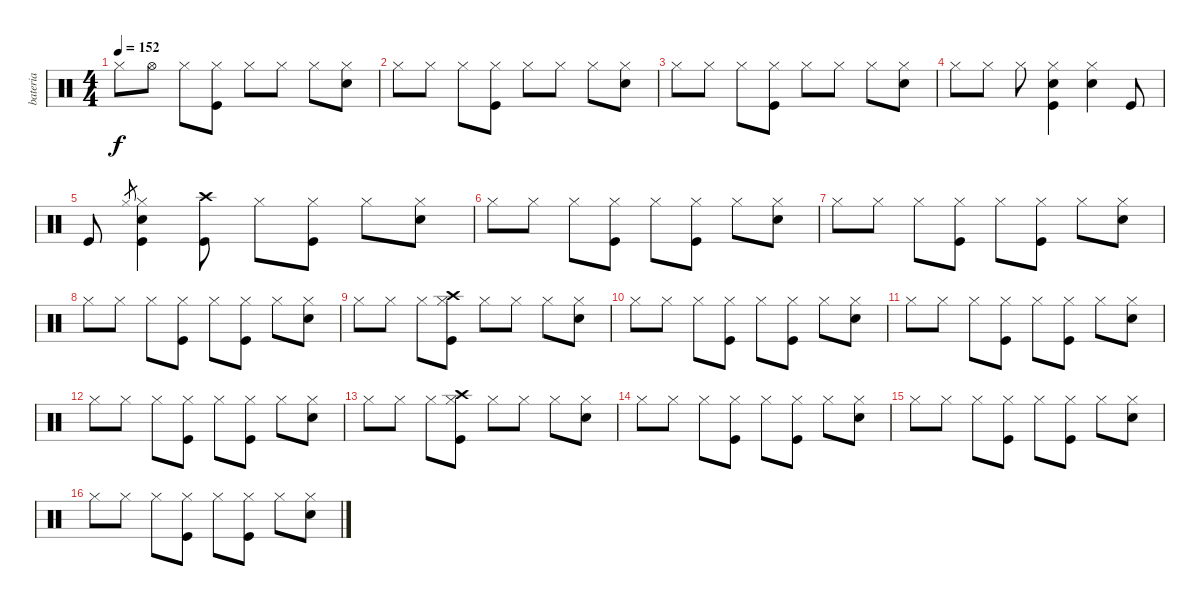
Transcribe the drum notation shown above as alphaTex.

\track ("bateria" "bateria") {instrument percussion}
\staff {score}
\articulation defaults
\ts (4 4)
\tempo 152
\clef neutral
\ks c "Hi-Hat (closed)".8{dy f} "Hi-Hat (open)".8 "Hi-Hat (closed)".8
("Hi-Hat (closed)" "Kick (hit)").8 "Hi-Hat (closed)".8 "Hi-Hat (closed)".8 "Hi-Hat (closed)".8 ("Hi-Hat (closed)" "Electric Snare (hit)").8 |
"Hi-Hat (closed)".8 "Hi-Hat (closed)".8 "Hi-Hat (closed)".8 ("Hi-Hat (closed)" "Kick (hit)").8 "Hi-Hat (closed)".8 "Hi-Hat (closed)".8 "Hi-Hat (closed)".8 ("Hi-Hat (closed)" "Electric Snare (hit)").8 |
"Hi-Hat (closed)".8 "Hi-Hat (closed)".8 "Hi-Hat (closed)".8 ("Hi-Hat (closed)" "Kick (hit)").8 "Hi-Hat (closed)".8 "Hi-Hat (closed)".8 "Hi-Hat (closed)".8 ("Hi-Hat (closed)" "Electric Snare (hit)").8 |
"Hi-Hat (closed)".8 "Hi-Hat (closed)".8 "Hi-Hat (closed)".8 ("Hi-Hat (closed)" "Kick (hit)" "Electric Snare (hit)").4 ("Hi-Hat (closed)" "Electric Snare (hit)").4 "Kick (hit)".8 |
"Kick (hit)".8 "Hi-Hat (closed)".8{gr} ("Hi-Hat (closed)" "Kick (hit)" "Electric Snare (hit)").4 ("Crash high (hit)" "Kick (hit)").8 "Hi-Hat (closed)".8 ("Hi-Hat (closed)" "Kick (hit)").8 "Hi-Hat (closed)".8 ("Hi-Hat (closed)" "Electric Snare (hit)").8 |
"Hi-Hat (closed)".8 "Hi-Hat (closed)".8 "Hi-Hat (closed)".8 ("Hi-Hat (closed)" "Kick (hit)").8 "Hi-Hat (closed)".8 ("Hi-Hat (closed)" "Kick (hit)").8 "Hi-Hat (closed)".8 ("Hi-Hat (closed)" "Electric Snare (hit)").8 |
"Hi-Hat (closed)".8 "Hi-Hat (closed)".8 "Hi-Hat (closed)".8 ("Hi-Hat (closed)" "Kick (hit)").8 "Hi-Hat (closed)".8 ("Hi-Hat (closed)" "Kick (hit)").8 "Hi-Hat (closed)".8 ("Hi-Hat (closed)" "Electric Snare (hit)").8 |
"Hi-Hat (closed)".8 "Hi-Hat (closed)".8 "Hi-Hat (closed)".8 ("Hi-Hat (closed)" "Kick (hit)").8 "Hi-Hat (closed)".8 ("Hi-Hat (closed)" "Kick (hit)").8 "Hi-Hat (closed)".8 ("Hi-Hat (closed)" "Electric Snare (hit)").8 |
"Hi-Hat (closed)".8 "Hi-Hat (closed)".8 "Hi-Hat (closed)".8 ("Hi-Hat (closed)" "Kick (hit)" "Crash high (hit)").8 "Hi-Hat (closed)".8 "Hi-Hat (closed)".8 "Hi-Hat (closed)".8 ("Hi-Hat (closed)" "Electric Snare (hit)").8 |
"Hi-Hat (closed)".8 "Hi-Hat (closed)".8 "Hi-Hat (closed)".8 ("Hi-Hat (closed)" "Kick (hit)").8 "Hi-Hat (closed)".8 ("Hi-Hat (closed)" "Kick (hit)").8 "Hi-Hat (closed)".8 ("Hi-Hat (closed)" "Electric Snare (hit)").8 |
"Hi-Hat (closed)".8 "Hi-Hat (closed)".8 "Hi-Hat (closed)".8 ("Hi-Hat (closed)" "Kick (hit)").8 "Hi-Hat (closed)".8 ("Hi-Hat (closed)" "Kick (hit)").8 "Hi-Hat (closed)".8 ("Hi-Hat (closed)" "Electric Snare (hit)").8 |
"Hi-Hat (closed)".8 "Hi-Hat (closed)".8 "Hi-Hat (closed)".8 ("Hi-Hat (closed)" "Kick (hit)").8 "Hi-Hat (closed)".8 ("Hi-Hat (closed)" "Kick (hit)").8 "Hi-Hat (closed)".8 ("Hi-Hat (closed)" "Electric Snare (hit)").8 |
"Hi-Hat (closed)".8 "Hi-Hat (closed)".8 "Hi-Hat (closed)".8 ("Hi-Hat (closed)" "Kick (hit)" "Crash high (hit)").8 "Hi-Hat (closed)".8 "Hi-Hat (closed)".8 "Hi-Hat (closed)".8 ("Hi-Hat (closed)" "Electric Snare (hit)").8 |
"Hi-Hat (closed)".8 "Hi-Hat (closed)".8 "Hi-Hat (closed)".8 ("Hi-Hat (closed)" "Kick (hit)").8 "Hi-Hat (closed)".8 ("Hi-Hat (closed)" "Kick (hit)").8 "Hi-Hat (closed)".8 ("Hi-Hat (closed)" "Electric Snare (hit)").8 |
"Hi-Hat (closed)".8 "Hi-Hat (closed)".8 "Hi-Hat (closed)".8 ("Hi-Hat (closed)" "Kick (hit)").8 "Hi-Hat (closed)".8 ("Hi-Hat (closed)" "Kick (hit)").8 "Hi-Hat (closed)".8 ("Hi-Hat (closed)" "Electric Snare (hit)").8 |
"Hi-Hat (closed)".8 "Hi-Hat (closed)".8 "Hi-Hat (closed)".8 ("Hi-Hat (closed)" "Kick (hit)").8 "Hi-Hat (closed)".8 ("Hi-Hat (closed)" "Kick (hit)").8 "Hi-Hat (closed)".8 ("Hi-Hat (closed)" "Electric Snare (hit)").8
